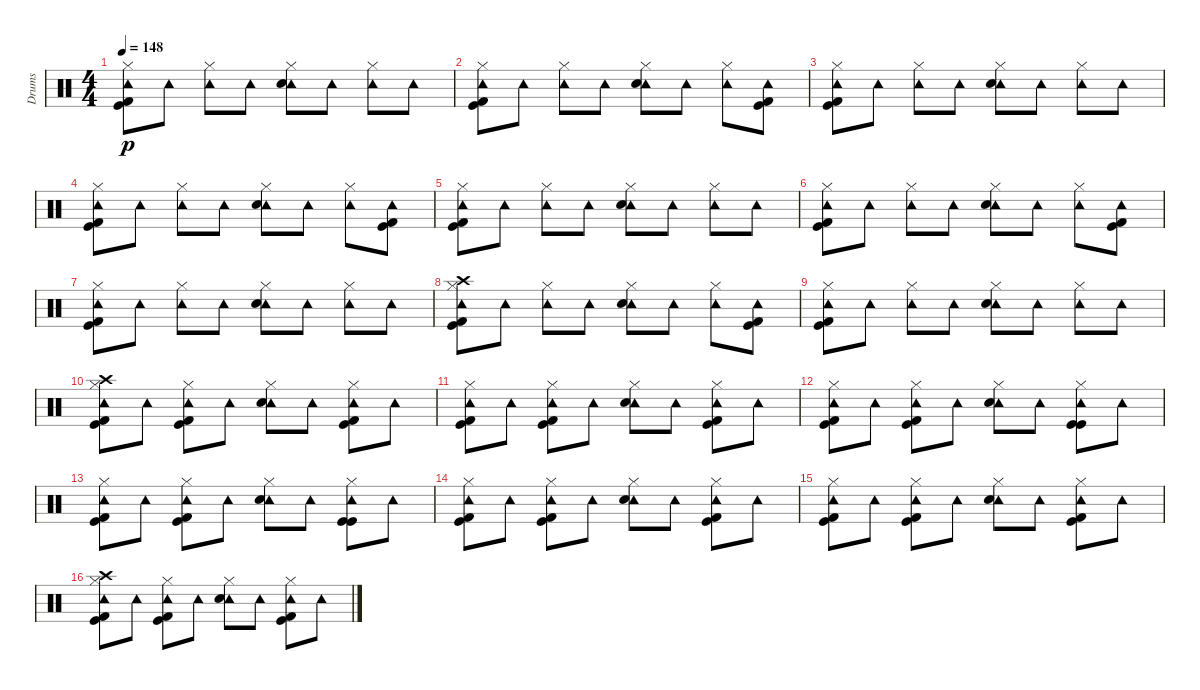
\track ("Drums" "Drums") {instrument percussion}
\staff {score}
\articulation defaults
\ts (4 4)
\tempo 148
\clef neutral
\ks c
("Hi-Hat (closed)" "Tambourine (hit)" "Kick (hit) 2" "Kick (hit)").8{dy p} "Tambourine (hit)".8 ("Hi-Hat (closed)" "Tambourine (hit)").8 "Tambourine (hit)".8 ("Hi-Hat (closed)" "Tambourine (hit)" "Electric Snare (hit)").8 "Tambourine (hit)".8 ("Hi-Hat (closed)" "Tambourine (hit)").8 "Tambourine (hit)".8 |
("Hi-Hat (closed)" "Tambourine (hit)" "Kick (hit) 2" "Kick (hit)").8 "Tambourine (hit)".8 ("Hi-Hat (closed)" "Tambourine (hit)").8 "Tambourine (hit)".8 ("Hi-Hat (closed)" "Tambourine (hit)" "Electric Snare (hit)").8 "Tambourine (hit)".8 ("Hi-Hat (closed)" "Tambourine (hit)").8 ("Tambourine (hit)" "Kick (hit) 2" "Kick (hit)").8 |
("Hi-Hat (closed)" "Tambourine (hit)" "Kick (hit) 2" "Kick (hit)").8 "Tambourine (hit)".8 ("Hi-Hat (closed)" "Tambourine (hit)").8 "Tambourine (hit)".8 ("Hi-Hat (closed)" "Tambourine (hit)" "Electric Snare (hit)").8 "Tambourine (hit)".8 ("Hi-Hat (closed)" "Tambourine (hit)").8 "Tambourine (hit)".8 |
("Hi-Hat (closed)" "Tambourine (hit)" "Kick (hit) 2" "Kick (hit)").8 "Tambourine (hit)".8 ("Hi-Hat (closed)" "Tambourine (hit)").8 "Tambourine (hit)".8 ("Hi-Hat (closed)" "Tambourine (hit)" "Electric Snare (hit)").8 "Tambourine (hit)".8 ("Hi-Hat (closed)" "Tambourine (hit)").8 ("Tambourine (hit)" "Kick (hit) 2" "Kick (hit)").8 |
("Hi-Hat (closed)" "Tambourine (hit)" "Kick (hit) 2" "Kick (hit)").8 "Tambourine (hit)".8 ("Hi-Hat (closed)" "Tambourine (hit)").8 "Tambourine (hit)".8 ("Hi-Hat (closed)" "Tambourine (hit)" "Electric Snare (hit)").8 "Tambourine (hit)".8 ("Hi-Hat (closed)" "Tambourine (hit)").8 "Tambourine (hit)".8 |
("Hi-Hat (closed)" "Tambourine (hit)" "Kick (hit) 2" "Kick (hit)").8 "Tambourine (hit)".8 ("Hi-Hat (closed)" "Tambourine (hit)").8 "Tambourine (hit)".8 ("Hi-Hat (closed)" "Tambourine (hit)" "Electric Snare (hit)").8 "Tambourine (hit)".8 ("Hi-Hat (closed)" "Tambourine (hit)").8 ("Tambourine (hit)" "Kick (hit) 2" "Kick (hit)").8 |
("Hi-Hat (closed)" "Tambourine (hit)" "Kick (hit) 2" "Kick (hit)").8 "Tambourine (hit)".8 ("Hi-Hat (closed)" "Tambourine (hit)").8 "Tambourine (hit)".8 ("Hi-Hat (closed)" "Tambourine (hit)" "Electric Snare (hit)").8 "Tambourine (hit)".8 ("Hi-Hat (closed)" "Tambourine (hit)").8 "Tambourine (hit)".8 |
("Hi-Hat (closed)" "Tambourine (hit)" "Crash high (hit)" "Kick (hit) 2" "Kick (hit)").8 "Tambourine (hit)".8 ("Hi-Hat (closed)" "Tambourine (hit)").8 "Tambourine (hit)".8 ("Hi-Hat (closed)" "Tambourine (hit)" "Electric Snare (hit)").8 "Tambourine (hit)".8 ("Hi-Hat (closed)" "Tambourine (hit)").8 ("Tambourine (hit)" "Kick (hit) 2" "Kick (hit)").8 |
("Hi-Hat (closed)" "Tambourine (hit)" "Kick (hit) 2" "Kick (hit)").8 "Tambourine (hit)".8 ("Hi-Hat (closed)" "Tambourine (hit)").8 "Tambourine (hit)".8 ("Hi-Hat (closed)" "Tambourine (hit)" "Electric Snare (hit)").8 "Tambourine (hit)".8 ("Hi-Hat (closed)" "Tambourine (hit)").8 "Tambourine (hit)".8 |
("Hi-Hat (closed)" "Tambourine (hit)" "Crash high (hit)" "Kick (hit) 2" "Kick (hit)").8 "Tambourine (hit)".8 ("Hi-Hat (closed)" "Tambourine (hit)" "Kick (hit) 2" "Kick (hit)").8 "Tambourine (hit)".8 ("Hi-Hat (closed)" "Tambourine (hit)" "Electric Snare (hit)").8 "Tambourine (hit)".8 ("Hi-Hat (closed)" "Tambourine (hit)" "Kick (hit) 2" "Kick (hit)").8 "Tambourine (hit)".8 |
("Hi-Hat (closed)" "Tambourine (hit)" "Kick (hit) 2" "Kick (hit)").8 "Tambourine (hit)".8 ("Hi-Hat (closed)" "Tambourine (hit)" "Kick (hit)" "Kick (hit) 2").8 "Tambourine (hit)".8 ("Hi-Hat (closed)" "Tambourine (hit)" "Electric Snare (hit)").8 "Tambourine (hit)".8 ("Hi-Hat (closed)" "Tambourine (hit)" "Kick (hit)" "Kick (hit) 2").8 "Tambourine (hit)".8 |
("Hi-Hat (closed)" "Tambourine (hit)" "Kick (hit) 2" "Kick (hit)").8 "Tambourine (hit)".8 ("Hi-Hat (closed)" "Tambourine (hit)" "Kick (hit) 2" "Kick (hit)").8 "Tambourine (hit)".8 ("Hi-Hat (closed)" "Tambourine (hit)" "Electric Snare (hit)").8 "Tambourine (hit)".8 ("Hi-Hat (closed)" "Tambourine (hit)" "Kick (hit)" "Kick (hit)").8 "Tambourine (hit)".8 |
("Hi-Hat (closed)" "Tambourine (hit)" "Kick (hit) 2" "Kick (hit)").8 "Tambourine (hit)".8 ("Hi-Hat (closed)" "Tambourine (hit)" "Kick (hit) 2" "Kick (hit)").8 "Tambourine (hit)".8 ("Hi-Hat (closed)" "Tambourine (hit)" "Electric Snare (hit)").8 "Tambourine (hit)".8 ("Hi-Hat (closed)" "Tambourine (hit)" "Kick (hit)" "Kick (hit)").8 "Tambourine (hit)".8 |
("Hi-Hat (closed)" "Tambourine (hit)" "Kick (hit) 2" "Kick (hit)").8 "Tambourine (hit)".8 ("Hi-Hat (closed)" "Tambourine (hit)" "Kick (hit) 2" "Kick (hit)").8 "Tambourine (hit)".8 ("Hi-Hat (closed)" "Tambourine (hit)" "Electric Snare (hit)").8 "Tambourine (hit)".8 ("Hi-Hat (closed)" "Tambourine (hit)" "Kick (hit) 2" "Kick (hit)").8 "Tambourine (hit)".8 |
("Hi-Hat (closed)" "Tambourine (hit)" "Kick (hit) 2" "Kick (hit)").8 "Tambourine (hit)".8 ("Hi-Hat (closed)" "Tambourine (hit)" "Kick (hit)" "Kick (hit) 2").8 "Tambourine (hit)".8 ("Hi-Hat (closed)" "Tambourine (hit)" "Electric Snare (hit)").8 "Tambourine (hit)".8 ("Hi-Hat (closed)" "Tambourine (hit)" "Kick (hit)" "Kick (hit) 2").8 "Tambourine (hit)".8 |
("Hi-Hat (closed)" "Tambourine (hit)" "Crash high (hit)" "Kick (hit) 2" "Kick (hit)").8 "Tambourine (hit)".8 ("Hi-Hat (closed)" "Tambourine (hit)" "Kick (hit) 2" "Kick (hit)").8 "Tambourine (hit)".8 ("Hi-Hat (closed)" "Tambourine (hit)" "Electric Snare (hit)").8 "Tambourine (hit)".8 ("Hi-Hat (closed)" "Tambourine (hit)" "Kick (hit) 2" "Kick (hit)").8 "Tambourine (hit)".8
